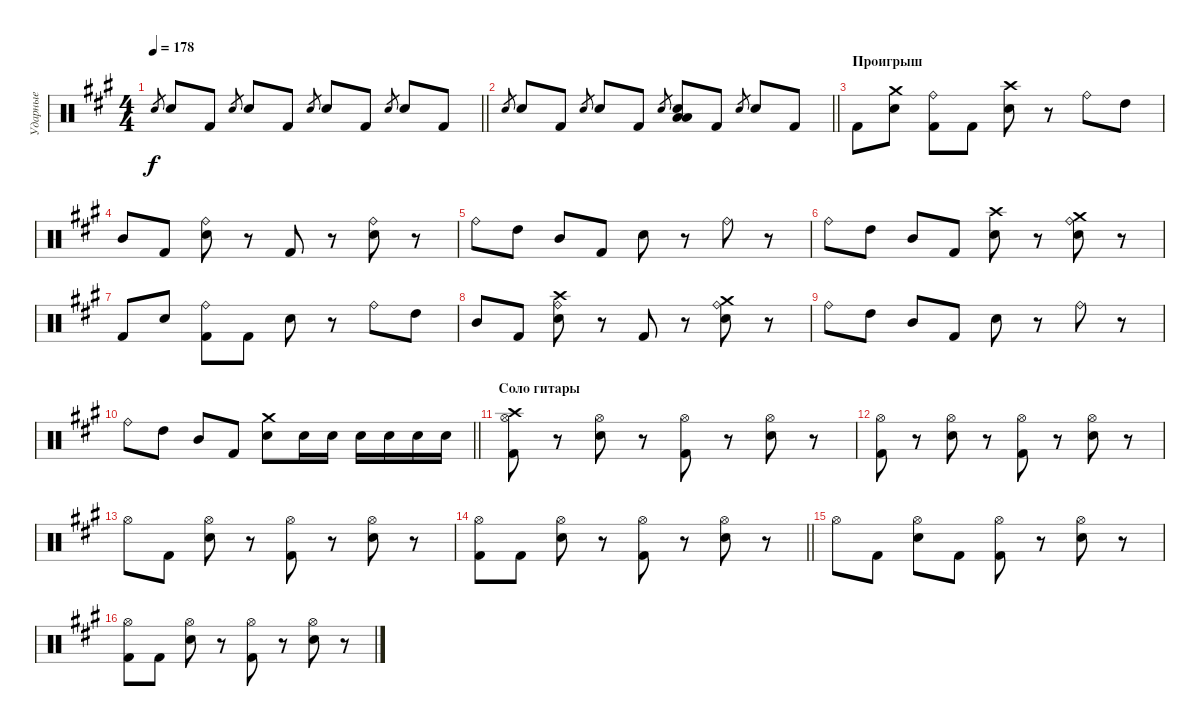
\track ("Ударные" "Ударные") {instrument percussion}
\staff {score}
\articulation defaults
\ts (4 4)
\tempo 178
\clef neutral
\barLineRight lightlight
\ks f#minor "Electric Snare (hit)".8{gr dy f} "Electric Snare (hit)".8 "Kick (hit) 2".8 "Electric Snare (hit)".8{gr} "Electric Snare (hit)".8 "Kick (hit) 2".8 "Electric Snare (hit)".8{gr} "Electric Snare (hit)".8 "Kick (hit) 2".8 "Electric Snare (hit)".8{gr} "Electric Snare (hit)".8 "Kick (hit) 2".8
|
\barLineRight lightlight "Electric Snare (hit)".8{gr} "Electric Snare (hit)".8 "Kick (hit) 2".8 "Electric Snare (hit)".8{gr} "Electric Snare (hit)".8 "Kick (hit) 2".8 "Electric Snare (hit)".8{gr}
("Low Tom (hit)" "Electric Snare (hit)" "Low Floor Tom (hit)").8 "Kick (hit) 2".8 "Electric Snare (hit)".8{gr} "Electric Snare (hit)".8 "Kick (hit) 2".8 |
\section ("" "Проигрыш")
"Kick (hit) 2".8 ("Crash medium (hit)" "Electric Snare (hit)").8 ("Kick (hit) 2" "Ride (bell)").8 "Kick (hit) 2".8 ("Crash high (hit)" "Electric Snare (hit)").8 r.8 "Ride (bell)".8 "High Tom (hit)".8 |
"Mid Tom (hit)".8 "Kick (hit) 2".8 ("Electric Snare (hit)" "Ride (bell)").8 r.8 "Kick (hit) 2".8 r.8 ("Electric Snare (hit)" "Ride (bell)").8 r.8 |
"Ride (bell)".8 "High Tom (hit)".8 "Mid Tom (hit)".8 "Kick (hit) 2".8 "Electric Snare (hit)".8 r.8 "Ride (bell)".8 r.8 |
"Ride (bell)".8 "High Tom (hit)".8 "Mid Tom (hit)".8 "Kick (hit) 2".8 ("Crash high (hit)" "Electric Snare (hit)").8 r.8 ("Crash medium (hit)" "Electric Snare (hit)" "Ride (bell)").8 r.8 |
"Kick (hit) 2".8 "Electric Snare (hit)".8 ("Kick (hit) 2" "Ride (bell)").8 "Kick (hit) 2".8 "Electric Snare (hit)".8 r.8 "Ride (bell)".8 "High Tom (hit)".8 |
"Mid Tom (hit)".8 "Kick (hit) 2".8 ("Crash high (hit)" "Electric Snare (hit)" "Ride (bell)").8 r.8 "Kick (hit) 2".8 r.8 ("Crash medium (hit)" "Electric Snare (hit)" "Ride (bell)").8 r.8 |
"Ride (bell)".8 "High Tom (hit)".8 "Mid Tom (hit)".8 "Kick (hit) 2".8 "Electric Snare (hit)".8 r.8 "Ride (bell)".8 r.8 |
\barLineRight lightlight "Ride (bell)".8 "High Tom (hit)".8 "Mid Tom (hit)".8 "Kick (hit) 2".8
("Crash medium (hit)" "Electric Snare (hit)").8 "Electric Snare (hit)".16 "Electric Snare (hit)".16 "Electric Snare (hit)".16 "Electric Snare (hit)".16 "Electric Snare (hit)".16 "Electric Snare (hit)".16 |
\section ("" "Соло гитары")
("Crash high (hit)" "Kick (hit) 2" "Hi-Hat (open)").8 r.8 ("Electric Snare (hit)" "Hi-Hat (open)").8 r.8 ("Kick (hit) 2" "Hi-Hat (open)").8 r.8 ("Electric Snare (hit)" "Hi-Hat (open)").8 r.8 |
("Kick (hit) 2" "Hi-Hat (open)").8 r.8 ("Electric Snare (hit)" "Hi-Hat (open)").8 r.8 ("Kick (hit) 2" "Hi-Hat (open)").8 r.8 ("Electric Snare (hit)" "Hi-Hat (open)").8 r.8 |
"Hi-Hat (open)".8 "Kick (hit) 2".8 ("Electric Snare (hit)" "Hi-Hat (open)").8 r.8 ("Kick (hit) 2" "Hi-Hat (open)").8 r.8 ("Electric Snare (hit)" "Hi-Hat (open)").8 r.8 |
\barLineRight lightlight
("Kick (hit) 2" "Hi-Hat (open)").8 "Kick (hit) 2".8 ("Electric Snare (hit)" "Hi-Hat (open)").8 r.8 ("Kick (hit) 2" "Hi-Hat (open)").8 r.8 ("Electric Snare (hit)" "Hi-Hat (open)").8 r.8 |
"Hi-Hat (open)".8 "Kick (hit) 2".8 ("Electric Snare (hit)" "Hi-Hat (open)").8 "Kick (hit) 2".8 ("Kick (hit) 2" "Hi-Hat (open)").8 r.8 ("Electric Snare (hit)" "Hi-Hat (open)").8 r.8 |
("Kick (hit) 2" "Hi-Hat (open)").8 "Kick (hit) 2".8 ("Electric Snare (hit)" "Hi-Hat (open)").8 r.8 ("Kick (hit) 2" "Hi-Hat (open)").8 r.8 ("Electric Snare (hit)" "Hi-Hat (open)").8 r.8
